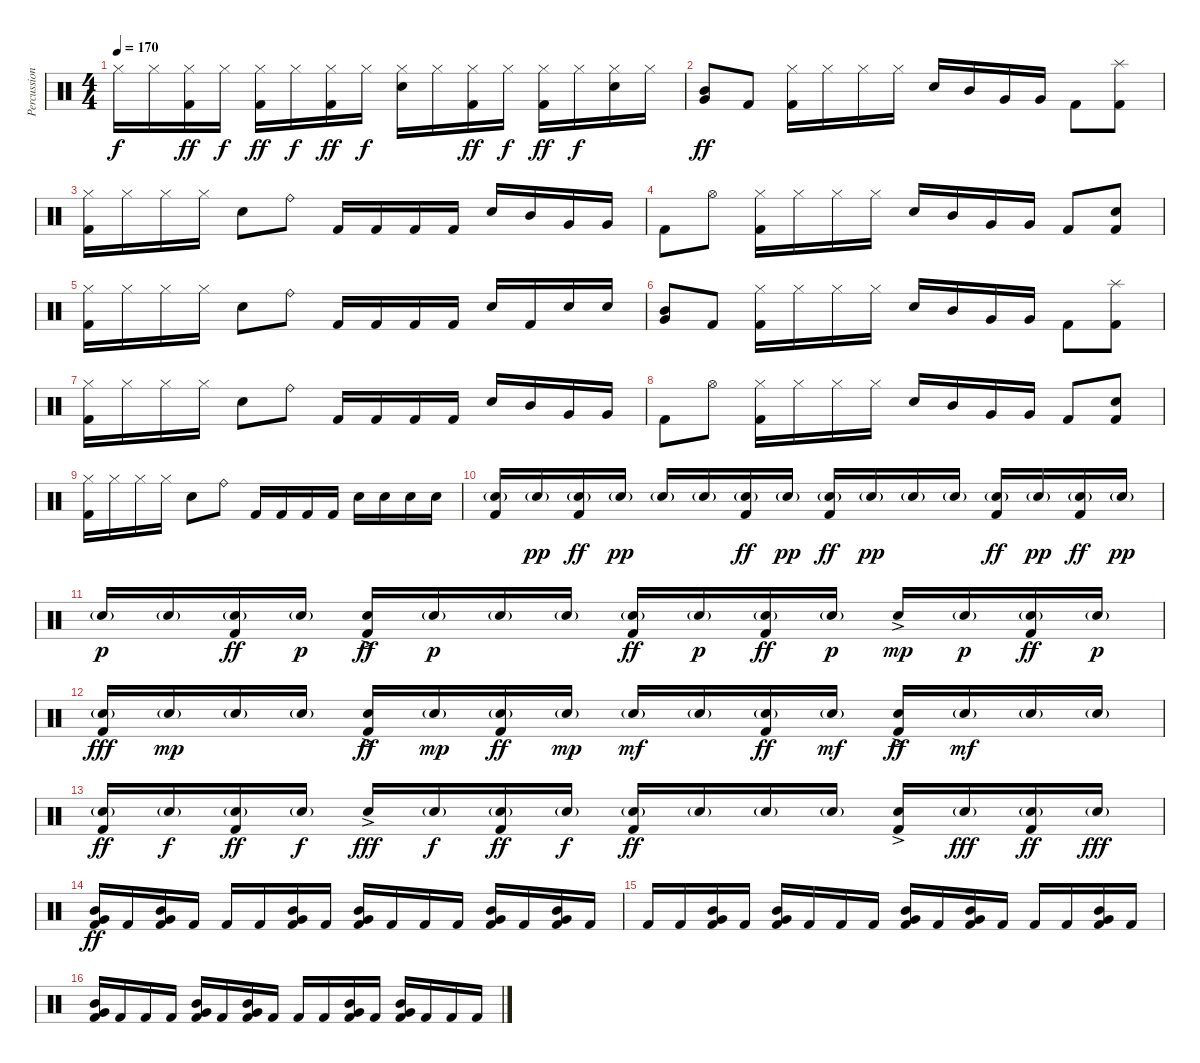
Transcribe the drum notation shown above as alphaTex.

\track ("Percussion" "Percussion") {instrument percussion}
\staff {score}
\articulation defaults
\ts (4 4)
\tempo 170
\clef neutral
\ks c "Hi-Hat (closed)".16{dy f} "Hi-Hat (closed)".16
("Hi-Hat (closed)" "Kick (hit) 2").16{dy ff} "Hi-Hat (closed)".16{dy f} ("Hi-Hat (closed)" "Kick (hit) 2").16{dy ff} "Hi-Hat (closed)".16{dy f} ("Hi-Hat (closed)" "Kick (hit) 2").16{dy ff} "Hi-Hat (closed)".16{dy f} ("Hi-Hat (closed)" "Electric Snare (hit)").16 "Hi-Hat (closed)".16 ("Hi-Hat (closed)" "Kick (hit) 2").16{dy ff} "Hi-Hat (closed)".16{dy f} ("Hi-Hat (closed)" "Kick (hit) 2").16{dy ff} "Hi-Hat (closed)".16{dy f} ("Hi-Hat (closed)" "Electric Snare (hit)").16 "Hi-Hat (closed)".16 |
("Mid Tom (hit)" "Very Low Tom (hit)").8{dy ff} "Kick (hit) 2".8 ("Hi-Hat (closed)" "Kick (hit) 2").16 "Hi-Hat (closed)".16 "Hi-Hat (closed)".16 "Hi-Hat (closed)".16 "Electric Snare (hit)".16 "Mid Tom (hit)".16 "Very Low Tom (hit)".16 "Very Low Tom (hit)".16 "Kick (hit) 2".8 ("Splash (hit)" "Kick (hit) 2").8 |
("Hi-Hat (closed)" "Kick (hit) 2").16 "Hi-Hat (closed)".16 "Hi-Hat (closed)".16 "Hi-Hat (closed)".16 "Electric Snare (hit)".8 "Ride (bell)".8 "Kick (hit) 2".16 "Kick (hit) 2".16 "Kick (hit) 2".16 "Kick (hit) 2".16 "Electric Snare (hit)".16 "Mid Tom (hit)".16 "Very Low Tom (hit)".16 "Very Low Tom (hit)".16 |
"Kick (hit) 2".8 "Hi-Hat (open)".8 ("Hi-Hat (closed)" "Kick (hit) 2").16 "Hi-Hat (closed)".16 "Hi-Hat (closed)".16 "Hi-Hat (closed)".16 "Electric Snare (hit)".16 "Mid Tom (hit)".16 "Very Low Tom (hit)".16 "Very Low Tom (hit)".16 "Kick (hit) 2".8 ("Electric Snare (hit)" "Kick (hit) 2").8 |
("Hi-Hat (closed)" "Kick (hit) 2").16 "Hi-Hat (closed)".16 "Hi-Hat (closed)".16 "Hi-Hat (closed)".16 "Electric Snare (hit)".8 "Ride (bell)".8 "Kick (hit) 2".16 "Kick (hit) 2".16 "Kick (hit) 2".16 "Kick (hit) 2".16 "Electric Snare (hit)".16 "Kick (hit) 2".16 "Electric Snare (hit)".16 "Electric Snare (hit)".16 |
("Mid Tom (hit)" "Very Low Tom (hit)").8 "Kick (hit) 2".8 ("Hi-Hat (closed)" "Kick (hit) 2").16 "Hi-Hat (closed)".16 "Hi-Hat (closed)".16 "Hi-Hat (closed)".16 "Electric Snare (hit)".16 "Mid Tom (hit)".16 "Very Low Tom (hit)".16 "Very Low Tom (hit)".16 "Kick (hit) 2".8 ("Splash (hit)" "Kick (hit) 2").8 |
("Hi-Hat (closed)" "Kick (hit) 2").16 "Hi-Hat (closed)".16 "Hi-Hat (closed)".16 "Hi-Hat (closed)".16 "Electric Snare (hit)".8 "Ride (bell)".8 "Kick (hit) 2".16 "Kick (hit) 2".16 "Kick (hit) 2".16 "Kick (hit) 2".16 "Electric Snare (hit)".16 "Mid Tom (hit)".16 "Very Low Tom (hit)".16 "Very Low Tom (hit)".16 |
"Kick (hit) 2".8 "Hi-Hat (open)".8 ("Hi-Hat (closed)" "Kick (hit) 2").16 "Hi-Hat (closed)".16 "Hi-Hat (closed)".16 "Hi-Hat (closed)".16 "Electric Snare (hit)".16 "Mid Tom (hit)".16 "Very Low Tom (hit)".16 "Very Low Tom (hit)".16 "Kick (hit) 2".8 ("Electric Snare (hit)" "Kick (hit) 2").8 |
("Hi-Hat (closed)" "Kick (hit) 2").16 "Hi-Hat (closed)".16 "Hi-Hat (closed)".16 "Hi-Hat (closed)".16 "Electric Snare (hit)".8 "Ride (bell)".8 "Kick (hit) 2".16 "Kick (hit) 2".16 "Kick (hit) 2".16 "Kick (hit) 2".16 "Electric Snare (hit)".16 "Electric Snare (hit)".16 "Electric Snare (hit)".16 "Electric Snare (hit)".16 |
("Electric Snare (hit)"{g} "Kick (hit) 2").16 "Electric Snare (hit)"{g}.16{dy pp} ("Electric Snare (hit)"{g} "Kick (hit) 2").16{dy ff} "Electric Snare (hit)"{g}.16{dy pp} "Electric Snare (hit)"{g}.16 "Electric Snare (hit)"{g}.16 ("Electric Snare (hit)"{g} "Kick (hit) 2").16{dy ff} "Electric Snare (hit)"{g}.16{dy pp} ("Electric Snare (hit)"{g} "Kick (hit) 2").16{dy ff} "Electric Snare (hit)"{g}.16{dy pp} "Electric Snare (hit)"{g}.16 "Electric Snare (hit)"{g}.16 ("Electric Snare (hit)"{g} "Kick (hit) 2").16{dy ff} "Electric Snare (hit)"{g}.16{dy pp} ("Electric Snare (hit)"{g} "Kick (hit) 2").16{dy ff} "Electric Snare (hit)"{g}.16{dy pp} |
"Electric Snare (hit)"{g}.16{dy p} "Electric Snare (hit)"{g}.16 ("Electric Snare (hit)"{g} "Kick (hit) 2").16{dy ff} "Electric Snare (hit)"{g}.16{dy p} ("Electric Snare (hit)"{ac} "Kick (hit) 2").16{dy ff} "Electric Snare (hit)"{g}.16{dy p} "Electric Snare (hit)"{g}.16 "Electric Snare (hit)"{g}.16 ("Electric Snare (hit)"{g} "Kick (hit) 2").16{dy ff} "Electric Snare (hit)"{g}.16{dy p} ("Electric Snare (hit)"{g} "Kick (hit) 2").16{dy ff} "Electric Snare (hit)"{g}.16{dy p} "Electric Snare (hit)"{ac}.16{dy mp} "Electric Snare (hit)"{g}.16{dy p} ("Electric Snare (hit)"{g} "Kick (hit) 2").16{dy ff} "Electric Snare (hit)"{g}.16{dy p} |
("Electric Snare (hit)"{g} "Kick (hit) 2").16{dy fff} "Electric Snare (hit)"{g}.16{dy mp} "Electric Snare (hit)"{g}.16 "Electric Snare (hit)"{g}.16 ("Electric Snare (hit)"{ac} "Kick (hit) 2").16{dy ff} "Electric Snare (hit)"{g}.16{dy mp} ("Electric Snare (hit)"{g} "Kick (hit) 2").16{dy ff} "Electric Snare (hit)"{g}.16{dy mp} "Electric Snare (hit)"{g}.16{dy mf} "Electric Snare (hit)"{g}.16 ("Electric Snare (hit)"{g} "Kick (hit) 2").16{dy ff} "Electric Snare (hit)"{g}.16{dy mf} ("Electric Snare (hit)"{ac} "Kick (hit) 2").16{dy ff} "Electric Snare (hit)"{g}.16{dy mf} "Electric Snare (hit)"{g}.16 "Electric Snare (hit)"{g}.16 |
("Electric Snare (hit)"{g} "Kick (hit) 2").16{dy ff} "Electric Snare (hit)"{g}.16{dy f} ("Electric Snare (hit)"{g} "Kick (hit) 2").16{dy ff} "Electric Snare (hit)"{g}.16{dy f} "Electric Snare (hit)"{ac}.16{dy fff} "Electric Snare (hit)"{g}.16{dy f} ("Electric Snare (hit)"{g} "Kick (hit) 2").16{dy ff} "Electric Snare (hit)"{g}.16{dy f} ("Electric Snare (hit)"{g} "Kick (hit) 2").16{dy ff} "Electric Snare (hit)"{g}.16 "Electric Snare (hit)"{g}.16 "Electric Snare (hit)"{g}.16 ("Electric Snare (hit)"{ac} "Kick (hit) 2").16 "Electric Snare (hit)"{g}.16{dy fff} ("Electric Snare (hit)"{g} "Kick (hit) 2").16{dy ff} "Electric Snare (hit)"{g}.16{dy fff} |
("Mid Tom (hit)" "Very Low Tom (hit)" "Kick (hit) 2").16{dy ff} "Kick (hit) 2".16 ("Mid Tom (hit)" "Very Low Tom (hit)" "Kick (hit) 2").16 "Kick (hit) 2".16 "Kick (hit) 2".16 "Kick (hit) 2".16 ("Mid Tom (hit)" "Very Low Tom (hit)" "Kick (hit) 2").16 "Kick (hit) 2".16 ("Mid Tom (hit)" "Very Low Tom (hit)" "Kick (hit) 2").16 "Kick (hit) 2".16 "Kick (hit) 2".16 "Kick (hit) 2".16 ("Mid Tom (hit)" "Very Low Tom (hit)" "Kick (hit) 2").16 "Kick (hit) 2".16 ("Mid Tom (hit)" "Very Low Tom (hit)" "Kick (hit) 2").16 "Kick (hit) 2".16 |
"Kick (hit) 2".16 "Kick (hit) 2".16 ("Mid Tom (hit)" "Very Low Tom (hit)" "Kick (hit) 2").16 "Kick (hit) 2".16 ("Mid Tom (hit)" "Very Low Tom (hit)" "Kick (hit) 2").16 "Kick (hit) 2".16 "Kick (hit) 2".16 "Kick (hit) 2".16 ("Mid Tom (hit)" "Very Low Tom (hit)" "Kick (hit) 2").16 "Kick (hit) 2".16 ("Mid Tom (hit)" "Very Low Tom (hit)" "Kick (hit) 2").16 "Kick (hit) 2".16 "Kick (hit) 2".16 "Kick (hit) 2".16 ("Mid Tom (hit)" "Very Low Tom (hit)" "Kick (hit) 2").16 "Kick (hit) 2".16 |
("Mid Tom (hit)" "Very Low Tom (hit)" "Kick (hit) 2").16 "Kick (hit) 2".16 "Kick (hit) 2".16 "Kick (hit) 2".16 ("Mid Tom (hit)" "Very Low Tom (hit)" "Kick (hit) 2").16 "Kick (hit) 2".16 ("Mid Tom (hit)" "Very Low Tom (hit)" "Kick (hit) 2").16 "Kick (hit) 2".16 "Kick (hit) 2".16 "Kick (hit) 2".16 ("Mid Tom (hit)" "Very Low Tom (hit)" "Kick (hit) 2").16 "Kick (hit) 2".16 ("Mid Tom (hit)" "Very Low Tom (hit)" "Kick (hit) 2").16 "Kick (hit) 2".16 "Kick (hit) 2".16 "Kick (hit) 2".16
